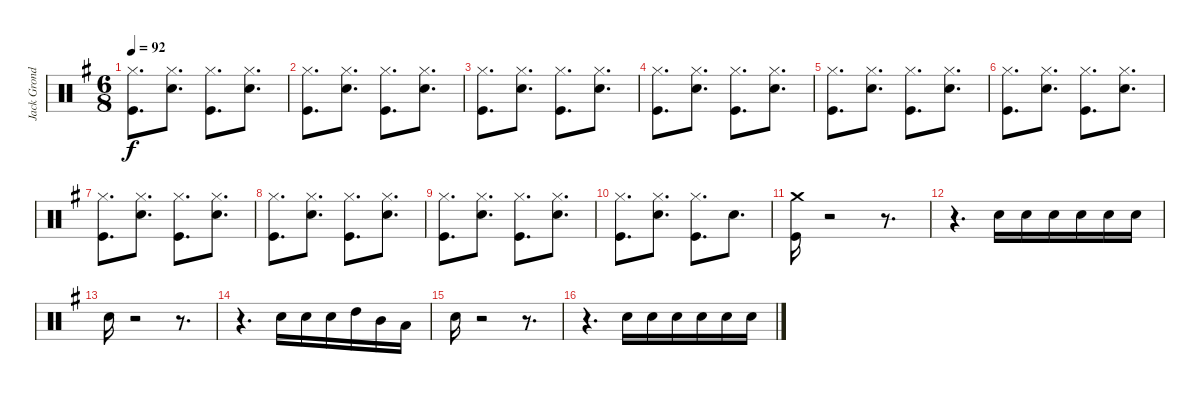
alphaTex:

\track ("Jack Grondin Drums" "Jack Grond") {instrument percussion}
\staff {score}
\articulation defaults
\ts (6 8)
\tempo 92
\clef neutral
\ks g
("Hi-Hat (closed)" "Kick (hit)").8{d dy f} ("Hi-Hat (closed)" "Snare (hit) 2").8{d} ("Hi-Hat (closed)" "Kick (hit)").8{d} ("Hi-Hat (closed)" "Snare (hit) 2").8{d} |
("Hi-Hat (closed)" "Kick (hit)").8{d} ("Hi-Hat (closed)" "Snare (hit) 2").8{d} ("Hi-Hat (closed)" "Kick (hit)").8{d} ("Hi-Hat (closed)" "Snare (hit) 2").8{d} |
("Hi-Hat (closed)" "Kick (hit)").8{d} ("Hi-Hat (closed)" "Snare (hit) 2").8{d} ("Hi-Hat (closed)" "Kick (hit)").8{d} ("Hi-Hat (closed)" "Snare (hit) 2").8{d} |
("Hi-Hat (closed)" "Kick (hit)").8{d} ("Hi-Hat (closed)" "Snare (hit) 2").8{d} ("Hi-Hat (closed)" "Kick (hit)").8{d} ("Hi-Hat (closed)" "Snare (hit) 2").8{d} |
("Hi-Hat (closed)" "Kick (hit)").8{d} ("Hi-Hat (closed)" "Snare (hit) 2").8{d} ("Hi-Hat (closed)" "Kick (hit)").8{d} ("Hi-Hat (closed)" "Snare (hit) 2").8{d} |
("Hi-Hat (closed)" "Kick (hit)").8{d} ("Hi-Hat (closed)" "Snare (hit) 2").8{d} ("Hi-Hat (closed)" "Kick (hit)").8{d} ("Hi-Hat (closed)" "Snare (hit) 2").8{d} |
("Hi-Hat (closed)" "Kick (hit)").8{d} ("Hi-Hat (closed)" "Snare (hit) 2").8{d} ("Hi-Hat (closed)" "Kick (hit)").8{d} ("Hi-Hat (closed)" "Snare (hit) 2").8{d} |
("Hi-Hat (closed)" "Kick (hit)").8{d} ("Hi-Hat (closed)" "Snare (hit) 2").8{d} ("Hi-Hat (closed)" "Kick (hit)").8{d} ("Hi-Hat (closed)" "Snare (hit) 2").8{d} |
("Hi-Hat (closed)" "Kick (hit)").8{d} ("Hi-Hat (closed)" "Snare (hit) 2").8{d} ("Hi-Hat (closed)" "Kick (hit)").8{d} ("Hi-Hat (closed)" "Snare (hit) 2").8{d} |
("Hi-Hat (closed)" "Kick (hit)").8{d} ("Hi-Hat (closed)" "Snare (hit) 2").8{d} ("Hi-Hat (closed)" "Kick (hit)").8{d} "Snare (hit) 2".8{d} |
("Crash medium (hit)" "Kick (hit)").16 r.2 r.8{d} |
r.4{d} "Snare (hit) 2".16 "Snare (hit) 2".16 "Snare (hit) 2".16 "Snare (hit) 2".16 "Snare (hit) 2".16 "Snare (hit) 2".16 |
"Snare (hit) 2".16 r.2 r.8{d} |
r.4{d} "Snare (hit) 2".16 "Snare (hit) 2".16 "Snare (hit) 2".16 "High Tom (hit)".16 "Mid Tom (hit)".16 "Low Tom (hit)".16 |
"Snare (hit) 2".16 r.2 r.8{d} |
r.4{d} "Snare (hit) 2".16 "Snare (hit) 2".16 "Snare (hit) 2".16 "Snare (hit) 2".16 "Snare (hit) 2".16 "Snare (hit) 2".16
